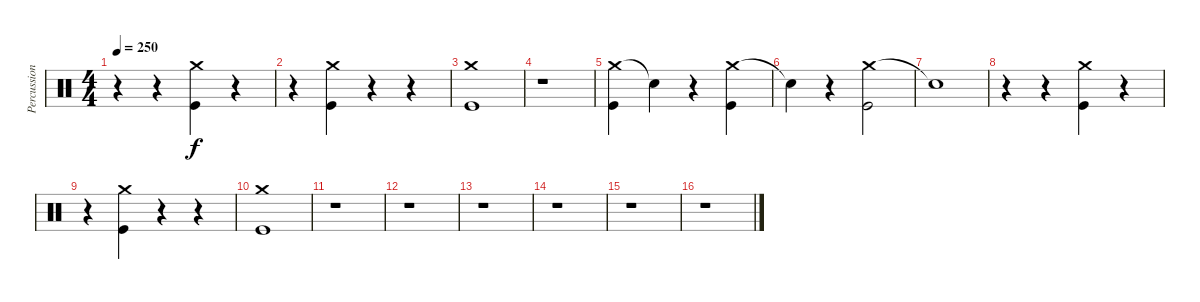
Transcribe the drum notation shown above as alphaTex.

\track ("Percussions" "Percussion") {instrument percussion}
\staff {score}
\articulation defaults
\ts (4 4)
\tempo 250
\clef neutral
\ks c
r.4{dy f} r.4 ("Crash medium (hit)" "Kick (hit)").4 r.4 |
r.4 ("Crash medium (hit)" "Kick (hit)").4 r.4 r.4 |
("Crash medium (hit)" "Kick (hit)").1 |
r.1 |
("Crash medium (hit)" "Kick (hit)").4 "Snare (hit)"{t}.4 r.4 ("Crash medium (hit)" "Kick (hit)").4 |
"Snare (hit)"{t}.4 r.4 ("Crash medium (hit)" "Kick (hit)").2 |
"Snare (hit)"{t}.1 |
r.4 r.4 ("Crash medium (hit)" "Kick (hit)").4 r.4 |
r.4 ("Crash medium (hit)" "Kick (hit)").4 r.4 r.4 |
("Crash medium (hit)" "Kick (hit)").1 |
r.1 |
r.1 |
r.1 |
r.1 |
r.1 |
r.1
